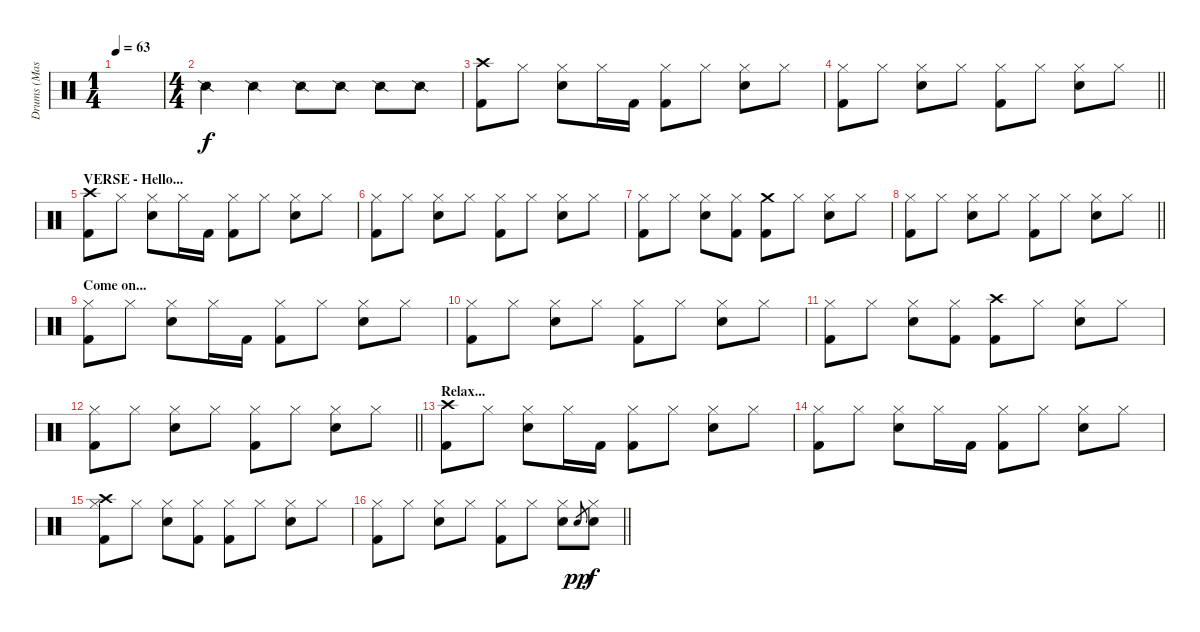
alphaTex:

\track ("Drums (Mason)" "Drums (Mas") {instrument percussion}
\staff {score}
\articulation defaults
\ts (1 4)
\tempo 63
\clef neutral
\ks c
|
\ts (4 4)
"Snare (side stick) 2".4 "Snare (side stick) 2".4 "Snare (side stick) 2".8 "Snare (side stick) 2".8 "Snare (side stick) 2".8 "Snare (side stick) 2".8 |
("Crash high (hit)" "Kick (hit) 2").8 "Hi-Hat (closed)".8 ("Hi-Hat (closed)" "Snare (hit) 2").8 "Hi-Hat (closed)".16 "Kick (hit) 2".16 ("Hi-Hat (closed)" "Kick (hit) 2").8 "Hi-Hat (closed)".8 ("Hi-Hat (closed)" "Snare (hit) 2").8 "Hi-Hat (closed)".8 |
\barLineRight lightlight
("Hi-Hat (closed)" "Kick (hit) 2").8 "Hi-Hat (closed)".8 ("Hi-Hat (closed)" "Snare (hit) 2").8 "Hi-Hat (closed)".8 ("Hi-Hat (closed)" "Kick (hit) 2").8 "Hi-Hat (closed)".8 ("Hi-Hat (closed)" "Snare (hit) 2").8 "Hi-Hat (closed)".8 |
\section ("" "VERSE - Hello...")
("Crash high (hit)" "Kick (hit) 2").8 "Hi-Hat (closed)".8 ("Hi-Hat (closed)" "Snare (hit) 2").8 "Hi-Hat (closed)".16 "Kick (hit) 2".16 ("Hi-Hat (closed)" "Kick (hit) 2").8 "Hi-Hat (closed)".8 ("Hi-Hat (closed)" "Snare (hit) 2").8 "Hi-Hat (closed)".8 |
("Hi-Hat (closed)" "Kick (hit) 2").8 "Hi-Hat (closed)".8 ("Hi-Hat (closed)" "Snare (hit) 2").8 "Hi-Hat (closed)".8 ("Hi-Hat (closed)" "Kick (hit) 2").8 "Hi-Hat (closed)".8 ("Hi-Hat (closed)" "Snare (hit) 2").8 "Hi-Hat (closed)".8 |
("Hi-Hat (closed)" "Kick (hit) 2").8 "Hi-Hat (closed)".8 ("Hi-Hat (closed)" "Snare (hit) 2").8 ("Hi-Hat (closed)" "Kick (hit) 2").8 ("Crash medium (hit)" "Kick (hit) 2").8 "Hi-Hat (closed)".8 ("Hi-Hat (closed)" "Snare (hit) 2").8 "Hi-Hat (closed)".8 |
\barLineRight lightlight
("Hi-Hat (closed)" "Kick (hit) 2").8 "Hi-Hat (closed)".8 ("Hi-Hat (closed)" "Snare (hit) 2").8 "Hi-Hat (closed)".8 ("Hi-Hat (closed)" "Kick (hit) 2").8 "Hi-Hat (closed)".8 ("Hi-Hat (closed)" "Snare (hit) 2").8 "Hi-Hat (closed)".8 |
\section ("" "Come on...")
("Hi-Hat (closed)" "Kick (hit) 2").8 "Hi-Hat (closed)".8 ("Hi-Hat (closed)" "Snare (hit) 2").8 "Hi-Hat (closed)".16 "Kick (hit) 2".16 ("Hi-Hat (closed)" "Kick (hit) 2").8 "Hi-Hat (closed)".8 ("Hi-Hat (closed)" "Snare (hit) 2").8 "Hi-Hat (closed)".8 |
("Hi-Hat (closed)" "Kick (hit) 2").8 "Hi-Hat (closed)".8 ("Hi-Hat (closed)" "Snare (hit) 2").8 "Hi-Hat (closed)".8 ("Hi-Hat (closed)" "Kick (hit) 2").8 "Hi-Hat (closed)".8 ("Hi-Hat (closed)" "Snare (hit) 2").8 "Hi-Hat (closed)".8 |
("Hi-Hat (closed)" "Kick (hit) 2").8 "Hi-Hat (closed)".8 ("Hi-Hat (closed)" "Snare (hit) 2").8 ("Hi-Hat (closed)" "Kick (hit) 2").8 ("Crash high (hit)" "Kick (hit) 2").8 "Hi-Hat (closed)".8 ("Hi-Hat (closed)" "Snare (hit) 2").8 "Hi-Hat (closed)".8 |
\barLineRight lightlight
("Hi-Hat (closed)" "Kick (hit) 2").8 "Hi-Hat (closed)".8 ("Hi-Hat (closed)" "Snare (hit) 2").8 "Hi-Hat (closed)".8 ("Hi-Hat (closed)" "Kick (hit) 2").8 "Hi-Hat (closed)".8 ("Hi-Hat (closed)" "Snare (hit) 2").8 "Hi-Hat (closed)".8 |
\section ("" "Relax...")
("Crash high (hit)" "Kick (hit) 2").8 "Hi-Hat (closed)".8 ("Hi-Hat (closed)" "Snare (hit) 2").8 "Hi-Hat (closed)".16 "Kick (hit) 2".16 ("Hi-Hat (closed)" "Kick (hit) 2").8 "Hi-Hat (closed)".8 ("Hi-Hat (closed)" "Snare (hit) 2").8 "Hi-Hat (closed)".8 |
("Hi-Hat (closed)" "Kick (hit) 2").8 "Hi-Hat (closed)".8 ("Hi-Hat (closed)" "Snare (hit) 2").8 "Hi-Hat (closed)".16 "Kick (hit) 2".16 ("Hi-Hat (closed)" "Kick (hit) 2").8 "Hi-Hat (closed)".8 ("Hi-Hat (closed)" "Snare (hit) 2").8 "Hi-Hat (closed)".8 |
("Hi-Hat (closed)" "Crash high (hit)" "Kick (hit) 2").8 "Hi-Hat (closed)".8 ("Hi-Hat (closed)" "Snare (hit) 2").8 ("Hi-Hat (closed)" "Kick (hit) 2").8 ("Hi-Hat (closed)" "Kick (hit) 2").8 "Hi-Hat (closed)".8 ("Hi-Hat (closed)" "Snare (hit) 2").8 "Hi-Hat (closed)".8 |
\barLineRight lightlight
("Hi-Hat (closed)" "Kick (hit) 2").8 "Hi-Hat (closed)".8 ("Hi-Hat (closed)" "Snare (hit) 2").8 "Hi-Hat (closed)".8 ("Hi-Hat (closed)" "Kick (hit) 2").8 "Hi-Hat (closed)".8 ("Hi-Hat (closed)" "Snare (hit) 2").8 "Snare (hit) 2".8{gr dy pp} ("Hi-Hat (closed)" "Snare (hit) 2").8{dy f}
